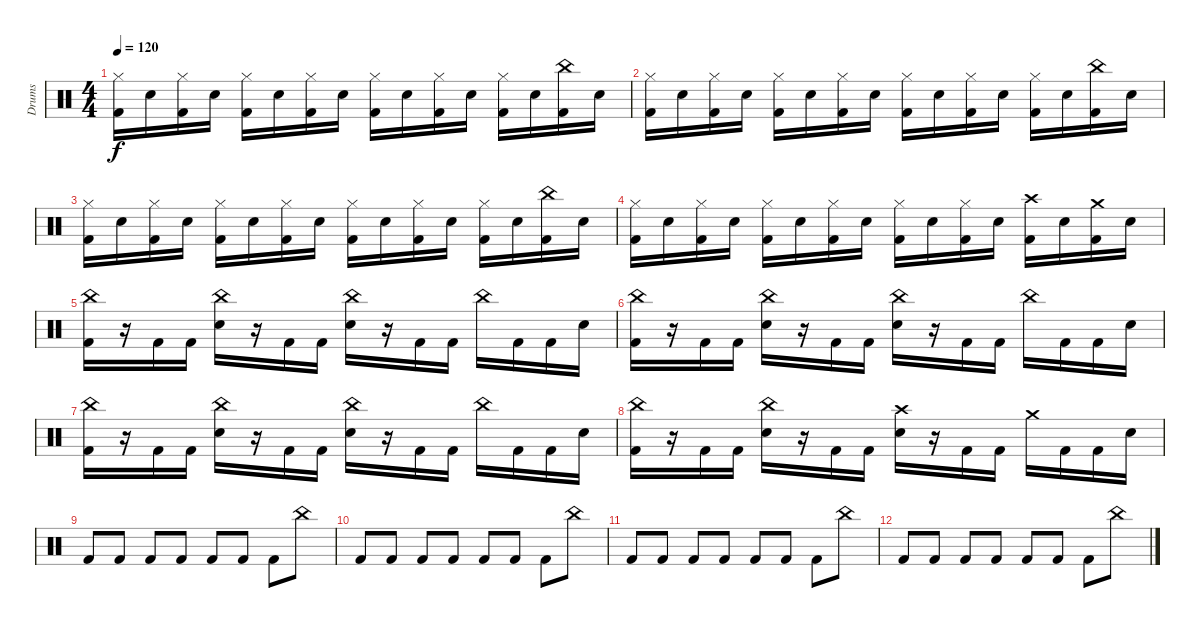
\track ("Drums" "Drums") {instrument percussion}
\staff {score}
\articulation defaults
\ts (4 4)
\tempo 120
\clef neutral
\ks c
("Hi-Hat (closed)" "Kick (hit) 2").16{dy f} "Snare (hit) 2".16 ("Hi-Hat (closed)" "Kick (hit) 2").16 "Snare (hit) 2".16 ("Hi-Hat (closed)" "Kick (hit) 2").16 "Snare (hit) 2".16 ("Hi-Hat (closed)" "Kick (hit) 2").16 "Snare (hit) 2".16 ("Hi-Hat (closed)" "Kick (hit) 2").16 "Snare (hit) 2".16 ("Hi-Hat (closed)" "Kick (hit) 2").16 "Snare (hit) 2".16 ("Hi-Hat (closed)" "Kick (hit) 2").16 "Snare (hit) 2".16 ("China (hit)" "Kick (hit) 2").16 "Snare (hit) 2".16 |
("Hi-Hat (closed)" "Kick (hit) 2").16 "Snare (hit) 2".16 ("Hi-Hat (closed)" "Kick (hit) 2").16 "Snare (hit) 2".16 ("Hi-Hat (closed)" "Kick (hit) 2").16 "Snare (hit) 2".16 ("Hi-Hat (closed)" "Kick (hit) 2").16 "Snare (hit) 2".16 ("Hi-Hat (closed)" "Kick (hit) 2").16 "Snare (hit) 2".16 ("Hi-Hat (closed)" "Kick (hit) 2").16 "Snare (hit) 2".16 ("Hi-Hat (closed)" "Kick (hit) 2").16 "Snare (hit) 2".16 ("China (hit)" "Kick (hit) 2").16 "Snare (hit) 2".16 |
("Hi-Hat (closed)" "Kick (hit) 2").16 "Snare (hit) 2".16 ("Hi-Hat (closed)" "Kick (hit) 2").16 "Snare (hit) 2".16 ("Hi-Hat (closed)" "Kick (hit) 2").16 "Snare (hit) 2".16 ("Hi-Hat (closed)" "Kick (hit) 2").16 "Snare (hit) 2".16 ("Hi-Hat (closed)" "Kick (hit) 2").16 "Snare (hit) 2".16 ("Hi-Hat (closed)" "Kick (hit) 2").16 "Snare (hit) 2".16 ("Hi-Hat (closed)" "Kick (hit) 2").16 "Snare (hit) 2".16 ("China (hit)" "Kick (hit) 2").16 "Snare (hit) 2".16 |
("Hi-Hat (closed)" "Kick (hit) 2").16 "Snare (hit) 2".16 ("Hi-Hat (closed)" "Kick (hit) 2").16 "Snare (hit) 2".16 ("Hi-Hat (closed)" "Kick (hit) 2").16 "Snare (hit) 2".16 ("Hi-Hat (closed)" "Kick (hit) 2").16 "Snare (hit) 2".16 ("Hi-Hat (closed)" "Kick (hit) 2").16 "Snare (hit) 2".16 ("Hi-Hat (closed)" "Kick (hit) 2").16 "Snare (hit) 2".16 ("Crash high (hit)" "Kick (hit) 2").16 "Snare (hit) 2".16 ("Crash medium (hit)" "Kick (hit) 2").16 "Snare (hit) 2".16 |
("China (hit)" "Kick (hit) 2").16 r.16 "Kick (hit) 2".16 "Kick (hit) 2".16 ("China (hit)" "Snare (hit) 2").16 r.16 "Kick (hit) 2".16 "Kick (hit) 2".16 ("China (hit)" "Snare (hit) 2").16 r.16 "Kick (hit) 2".16 "Kick (hit) 2".16 "China (hit)".16 "Kick (hit) 2".16 "Kick (hit) 2".16 "Snare (hit) 2".16 |
("China (hit)" "Kick (hit) 2").16 r.16 "Kick (hit) 2".16 "Kick (hit) 2".16 ("China (hit)" "Snare (hit) 2").16 r.16 "Kick (hit) 2".16 "Kick (hit) 2".16 ("China (hit)" "Snare (hit) 2").16 r.16 "Kick (hit) 2".16 "Kick (hit) 2".16 "China (hit)".16 "Kick (hit) 2".16 "Kick (hit) 2".16 "Snare (hit) 2".16 |
("China (hit)" "Kick (hit) 2").16 r.16 "Kick (hit) 2".16 "Kick (hit) 2".16 ("China (hit)" "Snare (hit) 2").16 r.16 "Kick (hit) 2".16 "Kick (hit) 2".16 ("China (hit)" "Snare (hit) 2").16 r.16 "Kick (hit) 2".16 "Kick (hit) 2".16 "China (hit)".16 "Kick (hit) 2".16 "Kick (hit) 2".16 "Snare (hit) 2".16 |
("China (hit)" "Kick (hit) 2").16 r.16 "Kick (hit) 2".16 "Kick (hit) 2".16 ("China (hit)" "Snare (hit) 2").16 r.16 "Kick (hit) 2".16 "Kick (hit) 2".16 ("Crash high (hit)" "Snare (hit) 2").16 r.16 "Kick (hit) 2".16 "Kick (hit) 2".16 "Crash medium (hit)".16 "Kick (hit) 2".16 "Kick (hit) 2".16 "Snare (hit) 2".16 |
"Kick (hit) 2".8 "Kick (hit) 2".8 "Kick (hit) 2".8 "Kick (hit) 2".8 "Kick (hit) 2".8 "Kick (hit) 2".8 "Kick (hit) 2".8 "China (hit)".8 |
"Kick (hit) 2".8 "Kick (hit) 2".8 "Kick (hit) 2".8 "Kick (hit) 2".8 "Kick (hit) 2".8 "Kick (hit) 2".8 "Kick (hit) 2".8 "China (hit)".8 |
"Kick (hit) 2".8 "Kick (hit) 2".8 "Kick (hit) 2".8 "Kick (hit) 2".8 "Kick (hit) 2".8 "Kick (hit) 2".8 "Kick (hit) 2".8 "China (hit)".8 |
"Kick (hit) 2".8 "Kick (hit) 2".8 "Kick (hit) 2".8 "Kick (hit) 2".8 "Kick (hit) 2".8 "Kick (hit) 2".8 "Kick (hit) 2".8 "China (hit)".8
